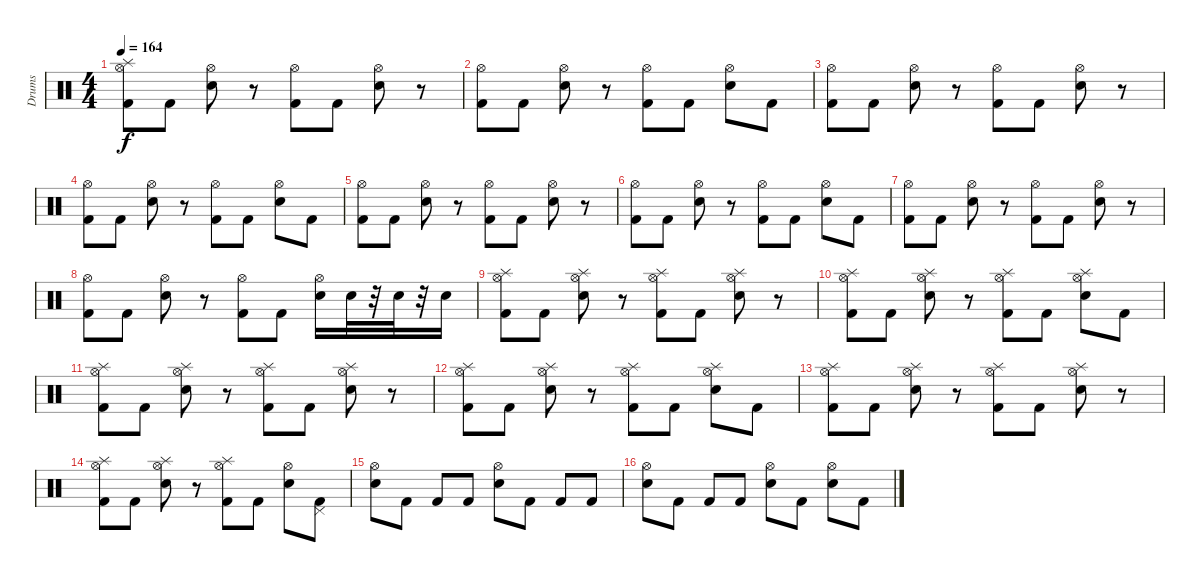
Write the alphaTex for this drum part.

\track ("Drums" "Drums") {instrument percussion}
\staff {score}
\articulation defaults
\ts (4 4)
\tempo 164
\clef neutral
\ks c
("Hi-Hat (open)" "Kick (hit) 2" "Splash (hit)").8{dy f} "Kick (hit) 2".8 ("Hi-Hat (open)" "Electric Snare (hit)").8 r.8 ("Hi-Hat (open)" "Kick (hit) 2").8 "Kick (hit) 2".8 ("Hi-Hat (open)" "Electric Snare (hit)").8 r.8 |
("Hi-Hat (open)" "Kick (hit) 2").8 "Kick (hit) 2".8 ("Hi-Hat (open)" "Electric Snare (hit)").8 r.8 ("Hi-Hat (open)" "Kick (hit) 2").8 "Kick (hit) 2".8 ("Hi-Hat (open)" "Electric Snare (hit)").8 "Kick (hit) 2".8 |
("Hi-Hat (open)" "Kick (hit) 2").8 "Kick (hit) 2".8 ("Hi-Hat (open)" "Electric Snare (hit)").8 r.8 ("Hi-Hat (open)" "Kick (hit) 2").8 "Kick (hit) 2".8 ("Hi-Hat (open)" "Electric Snare (hit)").8 r.8 |
("Hi-Hat (open)" "Kick (hit) 2").8 "Kick (hit) 2".8 ("Hi-Hat (open)" "Electric Snare (hit)").8 r.8 ("Hi-Hat (open)" "Kick (hit) 2").8 "Kick (hit) 2".8 ("Hi-Hat (open)" "Electric Snare (hit)").8 "Kick (hit) 2".8 |
("Hi-Hat (open)" "Kick (hit) 2").8 "Kick (hit) 2".8 ("Hi-Hat (open)" "Electric Snare (hit)").8 r.8 ("Hi-Hat (open)" "Kick (hit) 2").8 "Kick (hit) 2".8 ("Hi-Hat (open)" "Electric Snare (hit)").8 r.8 |
("Hi-Hat (open)" "Kick (hit) 2").8 "Kick (hit) 2".8 ("Hi-Hat (open)" "Electric Snare (hit)").8 r.8 ("Hi-Hat (open)" "Kick (hit) 2").8 "Kick (hit) 2".8 ("Hi-Hat (open)" "Electric Snare (hit)").8 "Kick (hit) 2".8 |
("Hi-Hat (open)" "Kick (hit) 2").8 "Kick (hit) 2".8 ("Hi-Hat (open)" "Electric Snare (hit)").8 r.8 ("Hi-Hat (open)" "Kick (hit) 2").8 "Kick (hit) 2".8 ("Hi-Hat (open)" "Electric Snare (hit)").8 r.8 |
("Hi-Hat (open)" "Kick (hit) 2").8 "Kick (hit) 2".8 ("Hi-Hat (open)" "Electric Snare (hit)").8 r.8 ("Hi-Hat (open)" "Kick (hit) 2").8 "Kick (hit) 2".8 ("Hi-Hat (open)" "Electric Snare (hit)").16 "Electric Snare (hit)".32 r.32 "Electric Snare (hit)".32 r.32 "Electric Snare (hit)".16 |
("Kick (hit) 2" "Splash (hit)" "Hi-Hat (open)").8 "Kick (hit) 2".8 ("Electric Snare (hit)" "Splash (hit)" "Hi-Hat (open)").8 r.8 ("Kick (hit) 2" "Splash (hit)" "Hi-Hat (open)").8 "Kick (hit) 2".8 ("Electric Snare (hit)" "Splash (hit)" "Hi-Hat (open)").8 r.8 |
("Hi-Hat (open)" "Kick (hit) 2" "Splash (hit)").8 "Kick (hit) 2".8 ("Hi-Hat (open)" "Electric Snare (hit)" "Splash (hit)").8 r.8 ("Hi-Hat (open)" "Kick (hit) 2" "Splash (hit)").8 "Kick (hit) 2".8 ("Hi-Hat (open)" "Electric Snare (hit)" "Splash (hit)").8 "Kick (hit) 2".8 |
("Kick (hit) 2" "Splash (hit)" "Hi-Hat (open)").8 "Kick (hit) 2".8 ("Electric Snare (hit)" "Splash (hit)" "Hi-Hat (open)").8 r.8 ("Kick (hit) 2" "Splash (hit)" "Hi-Hat (open)").8 "Kick (hit) 2".8 ("Electric Snare (hit)" "Splash (hit)" "Hi-Hat (open)").8 r.8 |
("Hi-Hat (open)" "Kick (hit) 2" "Splash (hit)").8 "Kick (hit) 2".8 ("Hi-Hat (open)" "Electric Snare (hit)" "Splash (hit)").8 r.8 ("Hi-Hat (open)" "Kick (hit) 2" "Splash (hit)").8 "Kick (hit) 2".8 ("Hi-Hat (open)" "Electric Snare (hit)" "Splash (hit)").8 "Kick (hit) 2".8 |
("Kick (hit) 2" "Splash (hit)" "Hi-Hat (open)").8 "Kick (hit) 2".8 ("Electric Snare (hit)" "Splash (hit)" "Hi-Hat (open)").8 r.8 ("Kick (hit) 2" "Splash (hit)" "Hi-Hat (open)").8 "Kick (hit) 2".8 ("Electric Snare (hit)" "Splash (hit)" "Hi-Hat (open)").8 r.8 |
("Hi-Hat (open)" "Kick (hit) 2" "Splash (hit)").8 "Kick (hit) 2".8 ("Hi-Hat (open)" "Electric Snare (hit)" "Splash (hit)").8 r.8 ("Hi-Hat (open)" "Kick (hit) 2" "Splash (hit)").8 "Kick (hit) 2".8 ("Electric Snare (hit)" "Hi-Hat (open)").8 ("Kick (hit) 2" "Pedal Hi-Hat (hit)").8 |
("Electric Snare (hit)" "Hi-Hat (open)").8 "Kick (hit) 2".8 "Kick (hit) 2".8 "Kick (hit) 2".8 ("Electric Snare (hit)" "Hi-Hat (open)").8 "Kick (hit) 2".8 "Kick (hit) 2".8 "Kick (hit) 2".8 |
("Electric Snare (hit)" "Hi-Hat (open)").8 "Kick (hit) 2".8 "Kick (hit) 2".8 "Kick (hit) 2".8 ("Electric Snare (hit)" "Hi-Hat (open)").8 "Kick (hit) 2".8 ("Electric Snare (hit)" "Hi-Hat (open)").8 "Kick (hit) 2".8
